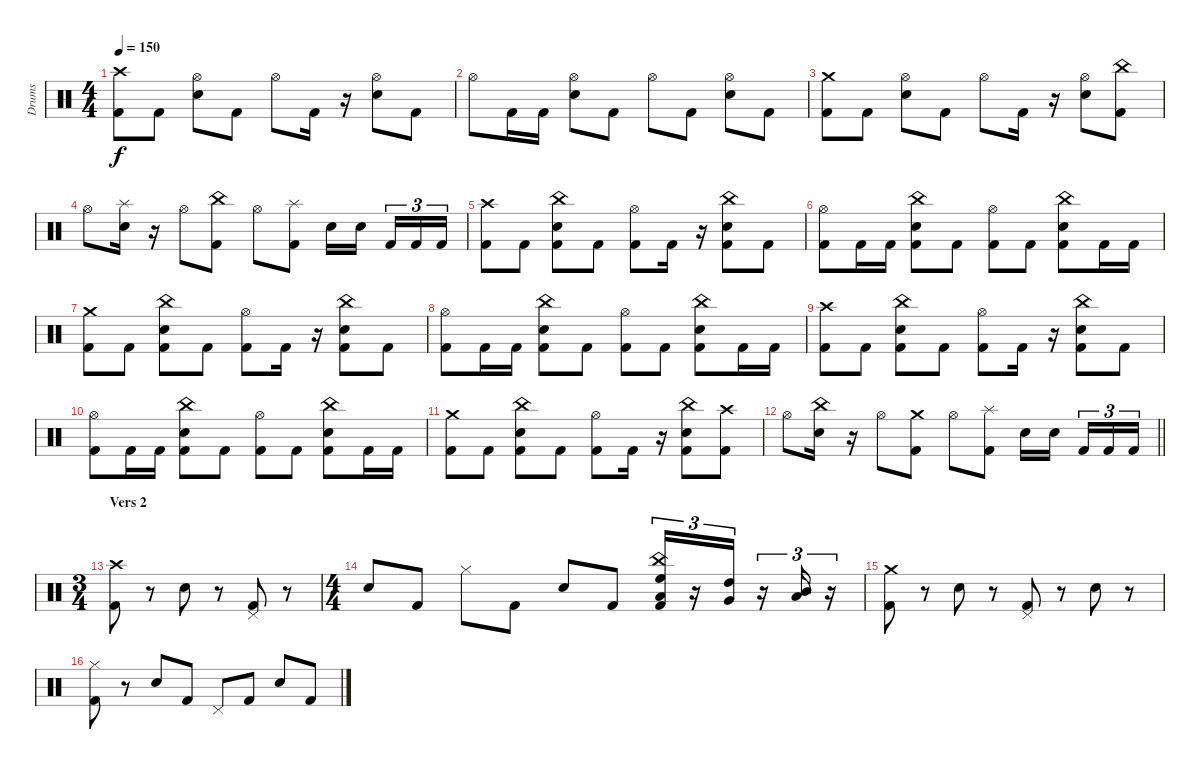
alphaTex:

\track ("Drums" "Drums") {instrument percussion}
\staff {score}
\articulation defaults
\ts (4 4)
\tempo 150
\clef neutral
\ks c
("Crash high (hit)" "Kick (hit) 2").8{dy f} "Kick (hit) 2".8 ("Hi-Hat (open)" "Snare (hit) 2").8 "Kick (hit) 2".8 "Hi-Hat (open)".8 "Kick (hit) 2".16 r.16 ("Hi-Hat (open)" "Snare (hit) 2").8 "Kick (hit) 2".8 |
"Hi-Hat (open)".8 "Kick (hit) 2".16 "Kick (hit) 2".16 ("Hi-Hat (open)" "Snare (hit) 2").8 "Kick (hit) 2".8 "Hi-Hat (open)".8 "Kick (hit) 2".8 ("Hi-Hat (open)" "Snare (hit) 2").8 "Kick (hit) 2".8 |
("Crash medium (hit)" "Kick (hit) 2").8 "Kick (hit) 2".8 ("Hi-Hat (open)" "Snare (hit) 2").8 "Kick (hit) 2".8 "Hi-Hat (open)".8 "Kick (hit) 2".16 r.16 ("Hi-Hat (open)" "Snare (hit) 2").8 ("China (hit)" "Kick (hit) 2").8 |
"Hi-Hat (open)".8 ("Splash (hit)" "Snare (hit) 2").16 r.16 "Hi-Hat (open)".8 ("China (hit)" "Kick (hit) 2").8 "Hi-Hat (open)".8 ("Splash (hit)" "Kick (hit) 2").8 "Snare (hit) 2".16 "Snare (hit) 2".16{beam splitsecondary} "Kick (hit) 2".16{tu (3 2)} "Kick (hit) 2".16{tu (3 2)} "Kick (hit) 2".16{tu (3 2)} |
("Crash high (hit)" "Kick (hit) 2").8 "Kick (hit) 2".8 ("China (hit)" "Snare (hit) 2" "Kick (hit) 2").8 "Kick (hit) 2".8 ("Hi-Hat (open)" "Kick (hit) 2").8 "Kick (hit) 2".16 r.16 ("China (hit)" "Snare (hit) 2" "Kick (hit) 2").8 "Kick (hit) 2".8 |
("Hi-Hat (open)" "Kick (hit) 2").8 "Kick (hit) 2".16 "Kick (hit) 2".16 ("China (hit)" "Snare (hit) 2" "Kick (hit) 2").8 "Kick (hit) 2".8 ("Hi-Hat (open)" "Kick (hit) 2").8 "Kick (hit) 2".8 ("China (hit)" "Snare (hit) 2" "Kick (hit) 2").8 "Kick (hit) 2".16 "Kick (hit) 2".16 |
("Crash medium (hit)" "Kick (hit) 2").8 "Kick (hit) 2".8 ("China (hit)" "Snare (hit) 2" "Kick (hit) 2").8 "Kick (hit) 2".8 ("Hi-Hat (open)" "Kick (hit) 2").8 "Kick (hit) 2".16 r.16 ("China (hit)" "Snare (hit) 2" "Kick (hit) 2").8 "Kick (hit) 2".8 |
("Hi-Hat (open)" "Kick (hit) 2").8 "Kick (hit) 2".16 "Kick (hit) 2".16 ("China (hit)" "Snare (hit) 2" "Kick (hit) 2").8 "Kick (hit) 2".8 ("Hi-Hat (open)" "Kick (hit) 2").8 "Kick (hit) 2".8 ("China (hit)" "Snare (hit) 2" "Kick (hit) 2").8 "Kick (hit) 2".16 "Kick (hit) 2".16 |
("Crash high (hit)" "Kick (hit) 2").8 "Kick (hit) 2".8 ("China (hit)" "Snare (hit) 2" "Kick (hit) 2").8 "Kick (hit) 2".8 ("Hi-Hat (open)" "Kick (hit) 2").8 "Kick (hit) 2".16 r.16 ("China (hit)" "Snare (hit) 2" "Kick (hit) 2").8 "Kick (hit) 2".8 |
("Hi-Hat (open)" "Kick (hit) 2").8 "Kick (hit) 2".16 "Kick (hit) 2".16 ("China (hit)" "Snare (hit) 2" "Kick (hit) 2").8 "Kick (hit) 2".8 ("Hi-Hat (open)" "Kick (hit) 2").8 "Kick (hit) 2".8 ("China (hit)" "Snare (hit) 2" "Kick (hit) 2").8 "Kick (hit) 2".16 "Kick (hit) 2".16 |
("Crash medium (hit)" "Kick (hit) 2").8 "Kick (hit) 2".8 ("China (hit)" "Snare (hit) 2" "Kick (hit) 2").8 "Kick (hit) 2".8 ("Hi-Hat (open)" "Kick (hit) 2").8 "Kick (hit) 2".16 r.16 ("China (hit)" "Snare (hit) 2" "Kick (hit) 2").8 ("Crash high (hit)" "Kick (hit) 2").8 |
\barLineRight lightlight "Hi-Hat (open)".8
("China (hit)" "Snare (hit) 2").16 r.16 "Hi-Hat (open)".8 ("Crash medium (hit)" "Kick (hit) 2").8 "Hi-Hat (open)".8 ("Splash (hit)" "Kick (hit) 2").8 "Snare (hit) 2".16 "Snare (hit) 2".16{beam splitsecondary} "Kick (hit) 2".16{tu (3 2)} "Kick (hit) 2".16{tu (3 2)} "Kick (hit) 2".16{tu (3 2)} |
\ts (3 4)
\section ("" "Vers 2")
("Crash high (hit)" "Kick (hit) 2").8 r.8 "Snare (hit) 2".8 r.8 ("Pedal Hi-Hat (hit)" "Kick (hit) 2").8 r.8 |
\ts (4 4)
"Snare (hit) 2".8 "Kick (hit) 2".8 "Hi-Hat (closed)".8 "Kick (hit) 2".8 "Snare (hit) 2".8 "Kick (hit) 2".8 ("China (hit)" "High Floor Tom (hit)" "Low Tom (hit)" "Kick (hit) 2").16{tu (3 2)} r.16{tu (3 2)} ("High Tom (hit)" "Very Low Tom (hit)").16{tu (3 2)} r.16{tu (3 2)} ("Mid Tom (hit)" "Low Floor Tom (hit)").16{tu (3 2)} r.16{tu (3 2)} |
("Crash medium (hit)" "Kick (hit) 2").8 r.8 "Snare (hit) 2".8 r.8 ("Pedal Hi-Hat (hit)" "Kick (hit) 2").8 r.8 "Snare (hit) 2".8 r.8 |
("Hi-Hat (closed)" "Kick (hit) 2").8 r.8 "Snare (hit) 2".8 "Kick (hit) 2".8 "Pedal Hi-Hat (hit)".8 "Kick (hit) 2".8 "Snare (hit) 2".8 "Kick (hit) 2".8
